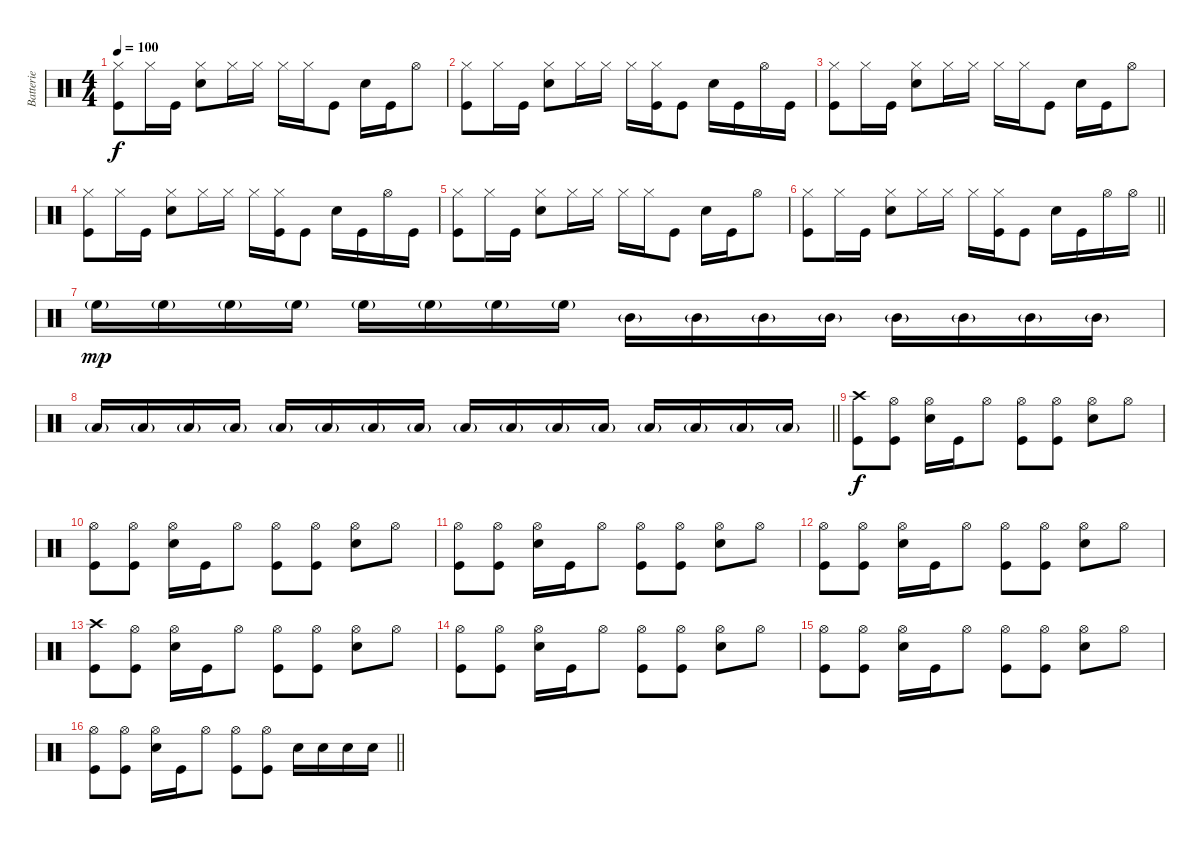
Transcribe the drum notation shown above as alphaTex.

\track ("Batterie" "Batterie") {instrument percussion}
\staff {score}
\articulation defaults
\ts (4 4)
\tempo 100
\clef neutral
\ks c
("Hi-Hat (closed)" "Kick (hit)").8{dy f} "Hi-Hat (closed)".16 "Kick (hit)".16 ("Hi-Hat (closed)" "Electric Snare (hit)").8 "Hi-Hat (closed)".16 "Hi-Hat (closed)".16 "Hi-Hat (closed)".16 "Hi-Hat (closed)".16 "Kick (hit)".8 "Electric Snare (hit)".16 "Kick (hit)".16 "Hi-Hat (open)".8 |
("Hi-Hat (closed)" "Kick (hit)").8 "Hi-Hat (closed)".16 "Kick (hit)".16 ("Hi-Hat (closed)" "Electric Snare (hit)").8 "Hi-Hat (closed)".16 "Hi-Hat (closed)".16 "Hi-Hat (closed)".16 ("Hi-Hat (closed)" "Kick (hit)").16 "Kick (hit)".8 "Electric Snare (hit)".16 "Kick (hit)".16 "Hi-Hat (open)".16 "Kick (hit)".16 |
("Hi-Hat (closed)" "Kick (hit)").8 "Hi-Hat (closed)".16 "Kick (hit)".16 ("Hi-Hat (closed)" "Electric Snare (hit)").8 "Hi-Hat (closed)".16 "Hi-Hat (closed)".16 "Hi-Hat (closed)".16 "Hi-Hat (closed)".16 "Kick (hit)".8 "Electric Snare (hit)".16 "Kick (hit)".16 "Hi-Hat (open)".8 |
("Hi-Hat (closed)" "Kick (hit)").8 "Hi-Hat (closed)".16 "Kick (hit)".16 ("Hi-Hat (closed)" "Electric Snare (hit)").8 "Hi-Hat (closed)".16 "Hi-Hat (closed)".16 "Hi-Hat (closed)".16 ("Hi-Hat (closed)" "Kick (hit)").16 "Kick (hit)".8 "Electric Snare (hit)".16 "Kick (hit)".16 "Hi-Hat (open)".16 "Kick (hit)".16 |
("Hi-Hat (closed)" "Kick (hit)").8 "Hi-Hat (closed)".16 "Kick (hit)".16 ("Hi-Hat (closed)" "Electric Snare (hit)").8 "Hi-Hat (closed)".16 "Hi-Hat (closed)".16 "Hi-Hat (closed)".16 "Hi-Hat (closed)".16 "Kick (hit)".8 "Electric Snare (hit)".16 "Kick (hit)".16 "Hi-Hat (open)".8 |
\barLineRight lightlight
("Hi-Hat (closed)" "Kick (hit)").8 "Hi-Hat (closed)".16 "Kick (hit)".16 ("Hi-Hat (closed)" "Electric Snare (hit)").8 "Hi-Hat (closed)".16 "Hi-Hat (closed)".16 "Hi-Hat (closed)".16 ("Hi-Hat (closed)" "Kick (hit)").16 "Kick (hit)".8 "Electric Snare (hit)".16 "Kick (hit)".16 "Hi-Hat (open)".16 "Hi-Hat (open)".16 |
"High Floor Tom (hit)"{g}.16{dy mp} "High Floor Tom (hit)"{g}.16 "High Floor Tom (hit)"{g}.16 "High Floor Tom (hit)"{g}.16 "High Floor Tom (hit)"{g}.16 "High Floor Tom (hit)"{g}.16 "High Floor Tom (hit)"{g}.16 "High Floor Tom (hit)"{g}.16 "Mid Tom (hit)"{g}.16 "Mid Tom (hit)"{g}.16 "Mid Tom (hit)"{g}.16 "Mid Tom (hit)"{g}.16 "Mid Tom (hit)"{g}.16 "Mid Tom (hit)"{g}.16 "Mid Tom (hit)"{g}.16 "Mid Tom (hit)"{g}.16 |
\barLineRight lightlight "Low Tom (hit)"{g}.16 "Low Tom (hit)"{g}.16 "Low Tom (hit)"{g}.16 "Low Tom (hit)"{g}.16 "Low Tom (hit)"{g}.16 "Low Tom (hit)"{g}.16 "Low Tom (hit)"{g}.16 "Low Tom (hit)"{g}.16 "Low Floor Tom (hit)"{g}.16 "Low Floor Tom (hit)"{g}.16 "Low Floor Tom (hit)"{g}.16 "Low Floor Tom (hit)"{g}.16 "Low Floor Tom (hit)"{g}.16 "Low Floor Tom (hit)"{g}.16 "Low Floor Tom (hit)"{g}.16 "Low Floor Tom (hit)"{g}.16
|
("Crash high (hit)" "Kick (hit)").8{dy f} ("Hi-Hat (open)" "Kick (hit)").8 ("Hi-Hat (open)" "Electric Snare (hit)").16 "Kick (hit)".16 "Hi-Hat (open)".8 ("Hi-Hat (open)" "Kick (hit)").8 ("Hi-Hat (open)" "Kick (hit)").8 ("Hi-Hat (open)" "Electric Snare (hit)").8 "Hi-Hat (open)".8 |
("Hi-Hat (open)" "Kick (hit)").8 ("Hi-Hat (open)" "Kick (hit)").8 ("Hi-Hat (open)" "Electric Snare (hit)").16 "Kick (hit)".16 "Hi-Hat (open)".8 ("Hi-Hat (open)" "Kick (hit)").8 ("Hi-Hat (open)" "Kick (hit)").8 ("Hi-Hat (open)" "Electric Snare (hit)").8 "Hi-Hat (open)".8 |
("Hi-Hat (open)" "Kick (hit)").8 ("Hi-Hat (open)" "Kick (hit)").8 ("Hi-Hat (open)" "Electric Snare (hit)").16 "Kick (hit)".16 "Hi-Hat (open)".8 ("Hi-Hat (open)" "Kick (hit)").8 ("Hi-Hat (open)" "Kick (hit)").8 ("Hi-Hat (open)" "Electric Snare (hit)").8 "Hi-Hat (open)".8 |
("Hi-Hat (open)" "Kick (hit)").8 ("Hi-Hat (open)" "Kick (hit)").8 ("Hi-Hat (open)" "Electric Snare (hit)").16 "Kick (hit)".16 "Hi-Hat (open)".8 ("Hi-Hat (open)" "Kick (hit)").8 ("Hi-Hat (open)" "Kick (hit)").8 ("Hi-Hat (open)" "Electric Snare (hit)").8 "Hi-Hat (open)".8 |
("Crash high (hit)" "Kick (hit)").8 ("Hi-Hat (open)" "Kick (hit)").8 ("Hi-Hat (open)" "Electric Snare (hit)").16 "Kick (hit)".16 "Hi-Hat (open)".8 ("Hi-Hat (open)" "Kick (hit)").8 ("Hi-Hat (open)" "Kick (hit)").8 ("Hi-Hat (open)" "Electric Snare (hit)").8 "Hi-Hat (open)".8 |
("Hi-Hat (open)" "Kick (hit)").8 ("Hi-Hat (open)" "Kick (hit)").8 ("Hi-Hat (open)" "Electric Snare (hit)").16 "Kick (hit)".16 "Hi-Hat (open)".8 ("Hi-Hat (open)" "Kick (hit)").8 ("Hi-Hat (open)" "Kick (hit)").8 ("Hi-Hat (open)" "Electric Snare (hit)").8 "Hi-Hat (open)".8 |
("Hi-Hat (open)" "Kick (hit)").8 ("Hi-Hat (open)" "Kick (hit)").8 ("Hi-Hat (open)" "Electric Snare (hit)").16 "Kick (hit)".16 "Hi-Hat (open)".8 ("Hi-Hat (open)" "Kick (hit)").8 ("Hi-Hat (open)" "Kick (hit)").8 ("Hi-Hat (open)" "Electric Snare (hit)").8 "Hi-Hat (open)".8 |
\barLineRight lightlight
("Hi-Hat (open)" "Kick (hit)").8 ("Hi-Hat (open)" "Kick (hit)").8 ("Hi-Hat (open)" "Electric Snare (hit)").16 "Kick (hit)".16 "Hi-Hat (open)".8 ("Hi-Hat (open)" "Kick (hit)").8 ("Hi-Hat (open)" "Kick (hit)").8 "Electric Snare (hit)".16 "Electric Snare (hit)".16 "Electric Snare (hit)".16 "Electric Snare (hit)".16
